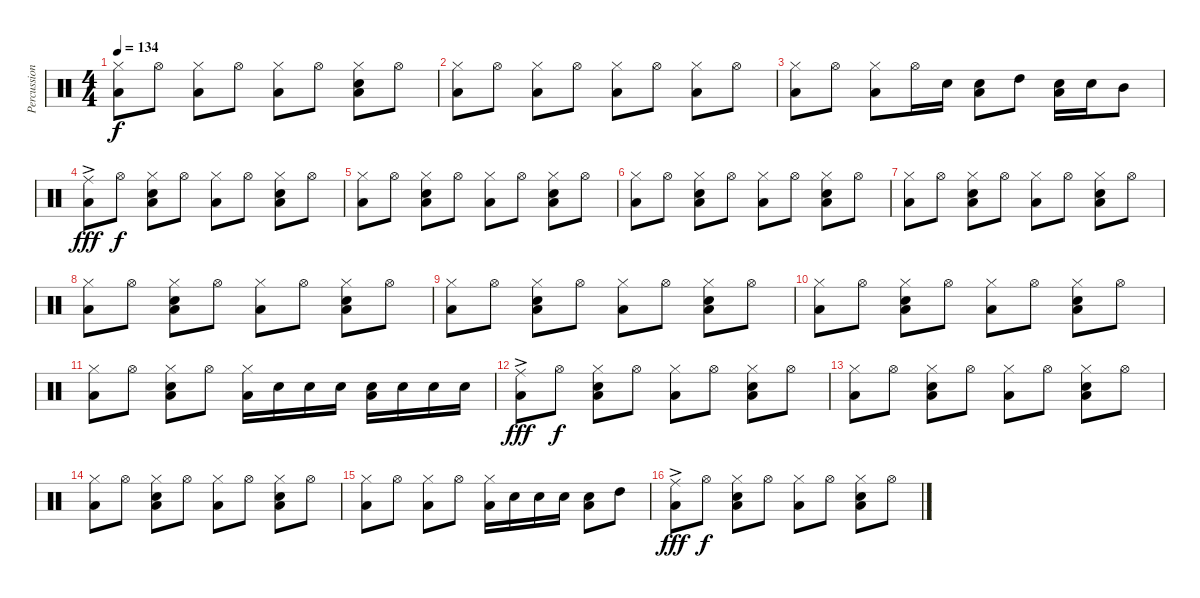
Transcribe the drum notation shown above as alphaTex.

\track ("Percussion" "Percussion") {instrument percussion}
\staff {score}
\articulation defaults
\ts (4 4)
\tempo 134
\clef neutral
\ks c
("Hi-Hat (closed)" "Low Floor Tom (hit)").8{dy f} "Hi-Hat (open)".8 ("Hi-Hat (closed)" "Low Floor Tom (hit)").8 "Hi-Hat (open)".8 ("Hi-Hat (closed)" "Low Floor Tom (hit)").8 "Hi-Hat (open)".8 ("Hi-Hat (closed)" "Snare (hit) 2" "Low Floor Tom (hit)").8 "Hi-Hat (open)".8 |
("Hi-Hat (closed)" "Low Floor Tom (hit)").8 "Hi-Hat (open)".8 ("Hi-Hat (closed)" "Low Floor Tom (hit)").8 "Hi-Hat (open)".8 ("Hi-Hat (closed)" "Low Floor Tom (hit)").8 "Hi-Hat (open)".8 ("Hi-Hat (closed)" "Low Floor Tom (hit)").8 "Hi-Hat (open)".8 |
("Hi-Hat (closed)" "Low Floor Tom (hit)").8 "Hi-Hat (open)".8 ("Hi-Hat (closed)" "Low Floor Tom (hit)").8 "Hi-Hat (open)".16 "Snare (hit) 2".16 ("Snare (hit) 2" "Low Floor Tom (hit)").8 "High Tom (hit)".8 ("Snare (hit) 2" "Low Floor Tom (hit)").16 "Snare (hit) 2".16 "Mid Tom (hit)".8 |
("Ride (middle)"{ac} "Low Floor Tom (hit)").8{dy fff} "Hi-Hat (open)".8{dy f} ("Hi-Hat (closed)" "Snare (hit) 2" "Low Floor Tom (hit)").8 "Hi-Hat (open)".8 ("Hi-Hat (closed)" "Low Floor Tom (hit)").8 "Hi-Hat (open)".8 ("Hi-Hat (closed)" "Snare (hit) 2" "Low Floor Tom (hit)").8 "Hi-Hat (open)".8 |
("Hi-Hat (closed)" "Low Floor Tom (hit)").8 "Hi-Hat (open)".8 ("Hi-Hat (closed)" "Snare (hit) 2" "Low Floor Tom (hit)").8 "Hi-Hat (open)".8 ("Hi-Hat (closed)" "Low Floor Tom (hit)").8 "Hi-Hat (open)".8 ("Hi-Hat (closed)" "Snare (hit) 2" "Low Floor Tom (hit)").8 "Hi-Hat (open)".8 |
("Hi-Hat (closed)" "Low Floor Tom (hit)").8 "Hi-Hat (open)".8 ("Hi-Hat (closed)" "Snare (hit) 2" "Low Floor Tom (hit)").8 "Hi-Hat (open)".8 ("Hi-Hat (closed)" "Low Floor Tom (hit)").8 "Hi-Hat (open)".8 ("Hi-Hat (closed)" "Snare (hit) 2" "Low Floor Tom (hit)").8 "Hi-Hat (open)".8 |
("Hi-Hat (closed)" "Low Floor Tom (hit)").8 "Hi-Hat (open)".8 ("Hi-Hat (closed)" "Snare (hit) 2" "Low Floor Tom (hit)").8 "Hi-Hat (open)".8 ("Hi-Hat (closed)" "Low Floor Tom (hit)").8 "Hi-Hat (open)".8 ("Hi-Hat (closed)" "Snare (hit) 2" "Low Floor Tom (hit)").8 "Hi-Hat (open)".8 |
("Hi-Hat (closed)" "Low Floor Tom (hit)").8 "Hi-Hat (open)".8 ("Hi-Hat (closed)" "Snare (hit) 2" "Low Floor Tom (hit)").8 "Hi-Hat (open)".8 ("Hi-Hat (closed)" "Low Floor Tom (hit)").8 "Hi-Hat (open)".8 ("Hi-Hat (closed)" "Snare (hit) 2" "Low Floor Tom (hit)").8 "Hi-Hat (open)".8 |
("Hi-Hat (closed)" "Low Floor Tom (hit)").8 "Hi-Hat (open)".8 ("Hi-Hat (closed)" "Snare (hit) 2" "Low Floor Tom (hit)").8 "Hi-Hat (open)".8 ("Hi-Hat (closed)" "Low Floor Tom (hit)").8 "Hi-Hat (open)".8 ("Hi-Hat (closed)" "Snare (hit) 2" "Low Floor Tom (hit)").8 "Hi-Hat (open)".8 |
("Hi-Hat (closed)" "Low Floor Tom (hit)").8 "Hi-Hat (open)".8 ("Hi-Hat (closed)" "Snare (hit) 2" "Low Floor Tom (hit)").8 "Hi-Hat (open)".8 ("Hi-Hat (closed)" "Low Floor Tom (hit)").8 "Hi-Hat (open)".8 ("Hi-Hat (closed)" "Snare (hit) 2" "Low Floor Tom (hit)").8 "Hi-Hat (open)".8 |
("Hi-Hat (closed)" "Low Floor Tom (hit)").8 "Hi-Hat (open)".8 ("Hi-Hat (closed)" "Snare (hit) 2" "Low Floor Tom (hit)").8 "Hi-Hat (open)".8 ("Hi-Hat (closed)" "Low Floor Tom (hit)").16 "Snare (hit) 2".16 "Snare (hit) 2".16 "Snare (hit) 2".16 ("Snare (hit) 2" "Low Floor Tom (hit)").16 "Snare (hit) 2".16 "Snare (hit) 2".16 "Snare (hit) 2".16 |
("Ride (middle)"{ac} "Low Floor Tom (hit)").8{dy fff} "Hi-Hat (open)".8{dy f} ("Hi-Hat (closed)" "Snare (hit) 2" "Low Floor Tom (hit)").8 "Hi-Hat (open)".8 ("Hi-Hat (closed)" "Low Floor Tom (hit)").8 "Hi-Hat (open)".8 ("Hi-Hat (closed)" "Snare (hit) 2" "Low Floor Tom (hit)").8 "Hi-Hat (open)".8 |
("Hi-Hat (closed)" "Low Floor Tom (hit)").8 "Hi-Hat (open)".8 ("Hi-Hat (closed)" "Snare (hit) 2" "Low Floor Tom (hit)").8 "Hi-Hat (open)".8 ("Hi-Hat (closed)" "Low Floor Tom (hit)").8 "Hi-Hat (open)".8 ("Hi-Hat (closed)" "Snare (hit) 2" "Low Floor Tom (hit)").8 "Hi-Hat (open)".8 |
("Hi-Hat (closed)" "Low Floor Tom (hit)").8 "Hi-Hat (open)".8 ("Hi-Hat (closed)" "Snare (hit) 2" "Low Floor Tom (hit)").8 "Hi-Hat (open)".8 ("Hi-Hat (closed)" "Low Floor Tom (hit)").8 "Hi-Hat (open)".8 ("Hi-Hat (closed)" "Snare (hit) 2" "Low Floor Tom (hit)").8 "Hi-Hat (open)".8 |
("Hi-Hat (closed)" "Low Floor Tom (hit)").8 "Hi-Hat (open)".8 ("Hi-Hat (closed)" "Low Floor Tom (hit)").8 "Hi-Hat (open)".8 ("Hi-Hat (closed)" "Low Floor Tom (hit)").16 "Snare (hit) 2".16 "Snare (hit) 2".16 "Snare (hit) 2".16 ("Snare (hit) 2" "Low Floor Tom (hit)").8 "High Tom (hit)".8 |
("Ride (middle)"{ac} "Low Floor Tom (hit)").8{dy fff} "Hi-Hat (open)".8{dy f} ("Hi-Hat (closed)" "Snare (hit) 2" "Low Floor Tom (hit)").8 "Hi-Hat (open)".8 ("Hi-Hat (closed)" "Low Floor Tom (hit)").8 "Hi-Hat (open)".8 ("Hi-Hat (closed)" "Snare (hit) 2" "Low Floor Tom (hit)").8 "Hi-Hat (open)".8
